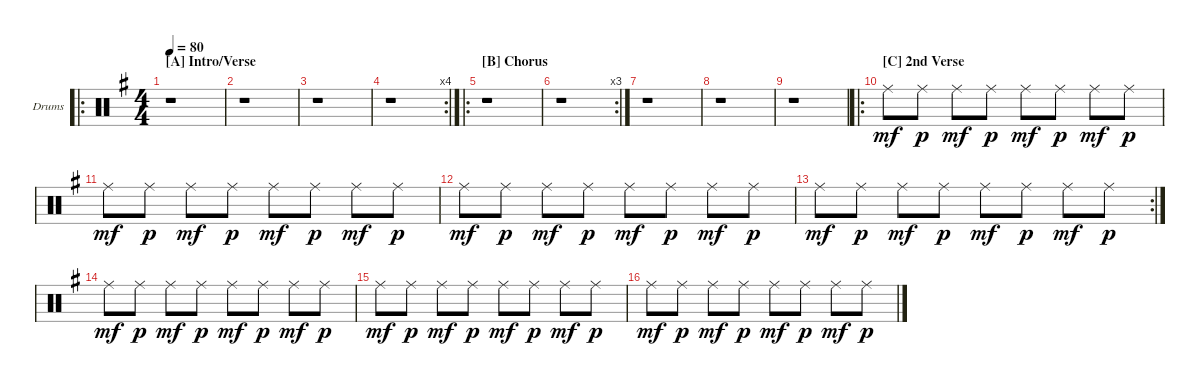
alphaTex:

\defaultSystemsLayout 4
\bracketExtendMode groupsimilarinstruments
\firstSystemTrackNameOrientation horizontal
\otherSystemsTrackNameOrientation horizontal
\chordDiagramsInScore
\track ("Dominic Boyce (Drums)" "Drums") {instrument percussion}
\staff {score}
\articulation defaults
\ro
\ts (4 4)
\section ("A" "Intro/Verse")
\tempo 80
\clef neutral
\ks g
r.1{dy mf} |
r.1 |
r.1 |
\rc 4
r.1 |
\ro
\section ("B" "Chorus")
r.1 |
\rc 3
r.1 |
r.1 |
r.1 |
r.1 |
\ro
\section ("C" "2nd Verse")
"Ride (middle)".8 "Ride (middle)".8{dy p} "Ride (middle)".8{dy mf} "Ride (middle)".8{dy p} "Ride (middle)".8{dy mf} "Ride (middle)".8{dy p} "Ride (middle)".8{dy mf} "Ride (middle)".8{dy p} |
"Ride (middle)".8{dy mf} "Ride (middle)".8{dy p} "Ride (middle)".8{dy mf} "Ride (middle)".8{dy p} "Ride (middle)".8{dy mf} "Ride (middle)".8{dy p} "Ride (middle)".8{dy mf} "Ride (middle)".8{dy p} |
"Ride (middle)".8{dy mf} "Ride (middle)".8{dy p} "Ride (middle)".8{dy mf} "Ride (middle)".8{dy p} "Ride (middle)".8{dy mf} "Ride (middle)".8{dy p} "Ride (middle)".8{dy mf} "Ride (middle)".8{dy p} |
\rc 2 "Ride (middle)".8{dy mf} "Ride (middle)".8{dy p} "Ride (middle)".8{dy mf} "Ride (middle)".8{dy p} "Ride (middle)".8{dy mf} "Ride (middle)".8{dy p} "Ride (middle)".8{dy mf} "Ride (middle)".8{dy p}
|
"Ride (middle)".8{dy mf} "Ride (middle)".8{dy p} "Ride (middle)".8{dy mf} "Ride (middle)".8{dy p} "Ride (middle)".8{dy mf} "Ride (middle)".8{dy p} "Ride (middle)".8{dy mf} "Ride (middle)".8{dy p} |
"Ride (middle)".8{dy mf} "Ride (middle)".8{dy p} "Ride (middle)".8{dy mf} "Ride (middle)".8{dy p} "Ride (middle)".8{dy mf} "Ride (middle)".8{dy p} "Ride (middle)".8{dy mf} "Ride (middle)".8{dy p} |
"Ride (middle)".8{dy mf} "Ride (middle)".8{dy p} "Ride (middle)".8{dy mf} "Ride (middle)".8{dy p} "Ride (middle)".8{dy mf} "Ride (middle)".8{dy p} "Ride (middle)".8{dy mf} "Ride (middle)".8{dy p}
